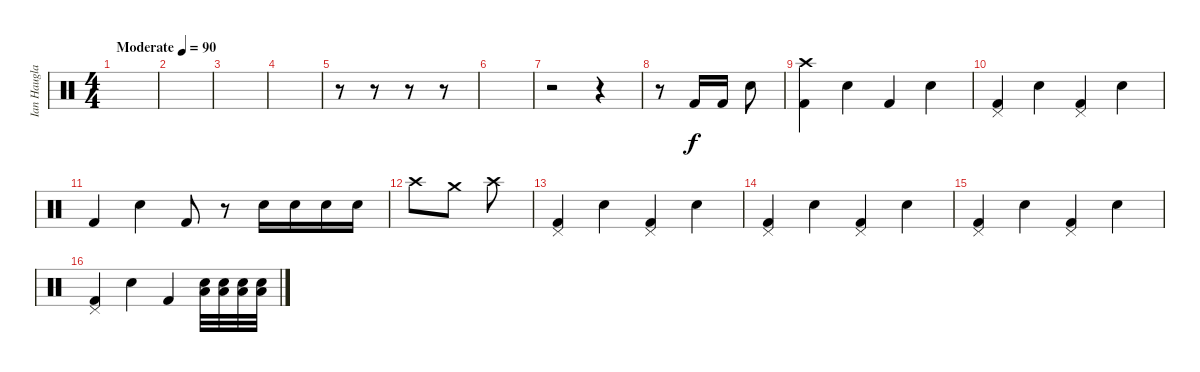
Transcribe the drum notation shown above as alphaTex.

\track ("Ian Haugland" "Ian Haugla") {instrument percussion}
\staff {score}
\articulation defaults
\ts (4 4)
\tempo (90 "Moderate")
\clef neutral
\ks c
|
|
|
|
r.8 r.8 r.8 r.8 |
|
r.2 r.4 |
r.8 "Kick (hit) 2".16 "Kick (hit) 2".16 "Electric Snare (hit)".8 |
("Crash high (hit)" "Kick (hit) 2").4 "Snare (hit) 2".4 "Kick (hit) 2".4 "Snare (hit) 2".4 |
("Pedal Hi-Hat (hit)" "Kick (hit) 2").4 "Snare (hit) 2".4 ("Pedal Hi-Hat (hit)" "Kick (hit) 2").4 "Snare (hit) 2".4 |
"Kick (hit) 2".4 "Snare (hit) 2".4 "Kick (hit) 2".8 r.8 "Electric Snare (hit)".16 "Electric Snare (hit)".16 "Electric Snare (hit)".16 "Electric Snare (hit)".16 |
"Crash high (hit)".8 "Crash medium (hit)".8 "Crash high (hit)".8 |
("Pedal Hi-Hat (hit)" "Kick (hit) 2").4 "Snare (hit) 2".4 ("Pedal Hi-Hat (hit)" "Kick (hit) 2").4 "Snare (hit) 2".4 |
("Pedal Hi-Hat (hit)" "Kick (hit) 2").4 "Snare (hit) 2".4 ("Pedal Hi-Hat (hit)" "Kick (hit) 2").4 "Snare (hit) 2".4 |
("Pedal Hi-Hat (hit)" "Kick (hit) 2").4 "Snare (hit) 2".4 ("Pedal Hi-Hat (hit)" "Kick (hit) 2").4 "Snare (hit) 2".4 |
("Pedal Hi-Hat (hit)" "Kick (hit) 2").4 "Snare (hit) 2".4 "Kick (hit) 2".4 ("Low Tom (hit)" "Electric Snare (hit)").32 ("Low Tom (hit)" "Electric Snare (hit)").32 ("Low Floor Tom (hit)" "Electric Snare (hit)").32 ("Low Floor Tom (hit)" "Electric Snare (hit)").32
